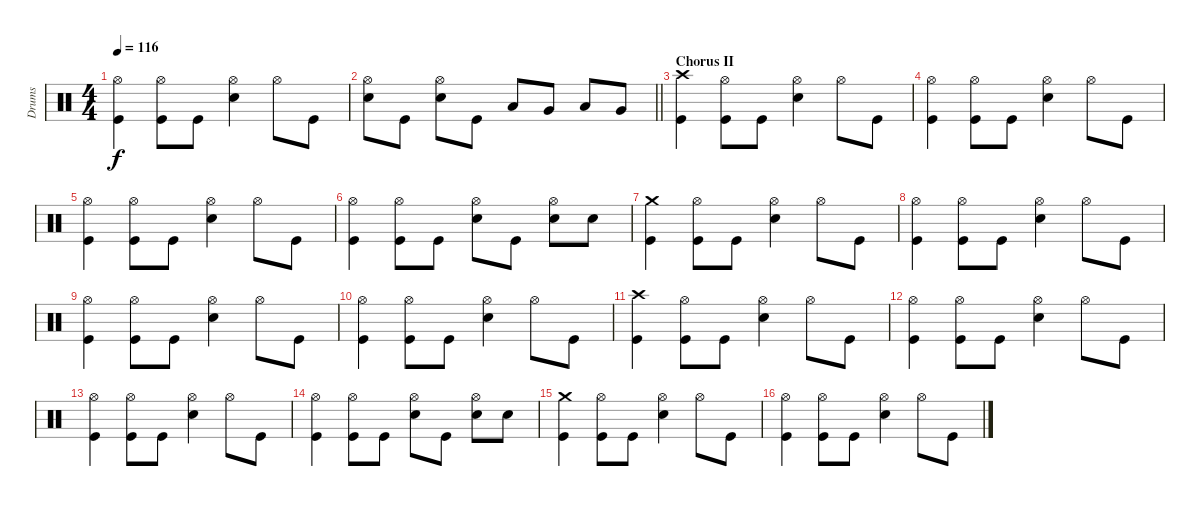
\track ("Drums" "Drums") {instrument percussion}
\staff {score}
\articulation defaults
\ts (4 4)
\tempo 116
\clef neutral
\ks c
("Hi-Hat (open)" "Kick (hit)").4{dy f} ("Hi-Hat (open)" "Kick (hit)").8 "Kick (hit)".8 ("Hi-Hat (open)" "Electric Snare (hit)").4 "Hi-Hat (open)".8 "Kick (hit)".8 |
\barLineRight lightlight
("Hi-Hat (open)" "Electric Snare (hit)").8 "Kick (hit)".8 ("Hi-Hat (open)" "Electric Snare (hit)").8 "Kick (hit)".8 "Low Tom (hit)".8 "Very Low Tom (hit)".8 "Low Tom (hit)".8 "Very Low Tom (hit)".8 |
\section ("" "Chorus II")
("Crash high (hit)" "Kick (hit)").4 ("Hi-Hat (open)" "Kick (hit)").8 "Kick (hit)".8 ("Hi-Hat (open)" "Electric Snare (hit)").4 "Hi-Hat (open)".8 "Kick (hit)".8 |
("Hi-Hat (open)" "Kick (hit)").4 ("Hi-Hat (open)" "Kick (hit)").8 "Kick (hit)".8 ("Hi-Hat (open)" "Electric Snare (hit)").4 "Hi-Hat (open)".8 "Kick (hit)".8 |
("Hi-Hat (open)" "Kick (hit)").4 ("Hi-Hat (open)" "Kick (hit)").8 "Kick (hit)".8 ("Hi-Hat (open)" "Electric Snare (hit)").4 "Hi-Hat (open)".8 "Kick (hit)".8 |
("Hi-Hat (open)" "Kick (hit)").4 ("Hi-Hat (open)" "Kick (hit)").8 "Kick (hit)".8 ("Hi-Hat (open)" "Electric Snare (hit)").8 "Kick (hit)".8 ("Hi-Hat (open)" "Electric Snare (hit)").8 "Electric Snare (hit)".8 |
("Crash medium (hit)" "Kick (hit)").4 ("Hi-Hat (open)" "Kick (hit)").8 "Kick (hit)".8 ("Hi-Hat (open)" "Electric Snare (hit)").4 "Hi-Hat (open)".8 "Kick (hit)".8 |
("Hi-Hat (open)" "Kick (hit)").4 ("Hi-Hat (open)" "Kick (hit)").8 "Kick (hit)".8 ("Hi-Hat (open)" "Electric Snare (hit)").4 "Hi-Hat (open)".8 "Kick (hit)".8 |
("Hi-Hat (open)" "Kick (hit)").4 ("Hi-Hat (open)" "Kick (hit)").8 "Kick (hit)".8 ("Hi-Hat (open)" "Electric Snare (hit)").4 "Hi-Hat (open)".8 "Kick (hit)".8 |
("Hi-Hat (open)" "Kick (hit)").4 ("Hi-Hat (open)" "Kick (hit)").8 "Kick (hit)".8 ("Hi-Hat (open)" "Electric Snare (hit)").4 "Hi-Hat (open)".8 "Kick (hit)".8 |
("Crash high (hit)" "Kick (hit)").4 ("Hi-Hat (open)" "Kick (hit)").8 "Kick (hit)".8 ("Hi-Hat (open)" "Electric Snare (hit)").4 "Hi-Hat (open)".8 "Kick (hit)".8 |
("Hi-Hat (open)" "Kick (hit)").4 ("Hi-Hat (open)" "Kick (hit)").8 "Kick (hit)".8 ("Hi-Hat (open)" "Electric Snare (hit)").4 "Hi-Hat (open)".8 "Kick (hit)".8 |
("Hi-Hat (open)" "Kick (hit)").4 ("Hi-Hat (open)" "Kick (hit)").8 "Kick (hit)".8 ("Hi-Hat (open)" "Electric Snare (hit)").4 "Hi-Hat (open)".8 "Kick (hit)".8 |
("Hi-Hat (open)" "Kick (hit)").4 ("Hi-Hat (open)" "Kick (hit)").8 "Kick (hit)".8 ("Hi-Hat (open)" "Electric Snare (hit)").8 "Kick (hit)".8 ("Hi-Hat (open)" "Electric Snare (hit)").8 "Electric Snare (hit)".8 |
("Crash medium (hit)" "Kick (hit)").4 ("Hi-Hat (open)" "Kick (hit)").8 "Kick (hit)".8 ("Hi-Hat (open)" "Electric Snare (hit)").4 "Hi-Hat (open)".8 "Kick (hit)".8 |
("Hi-Hat (open)" "Kick (hit)").4 ("Hi-Hat (open)" "Kick (hit)").8 "Kick (hit)".8 ("Hi-Hat (open)" "Electric Snare (hit)").4 "Hi-Hat (open)".8 "Kick (hit)".8
